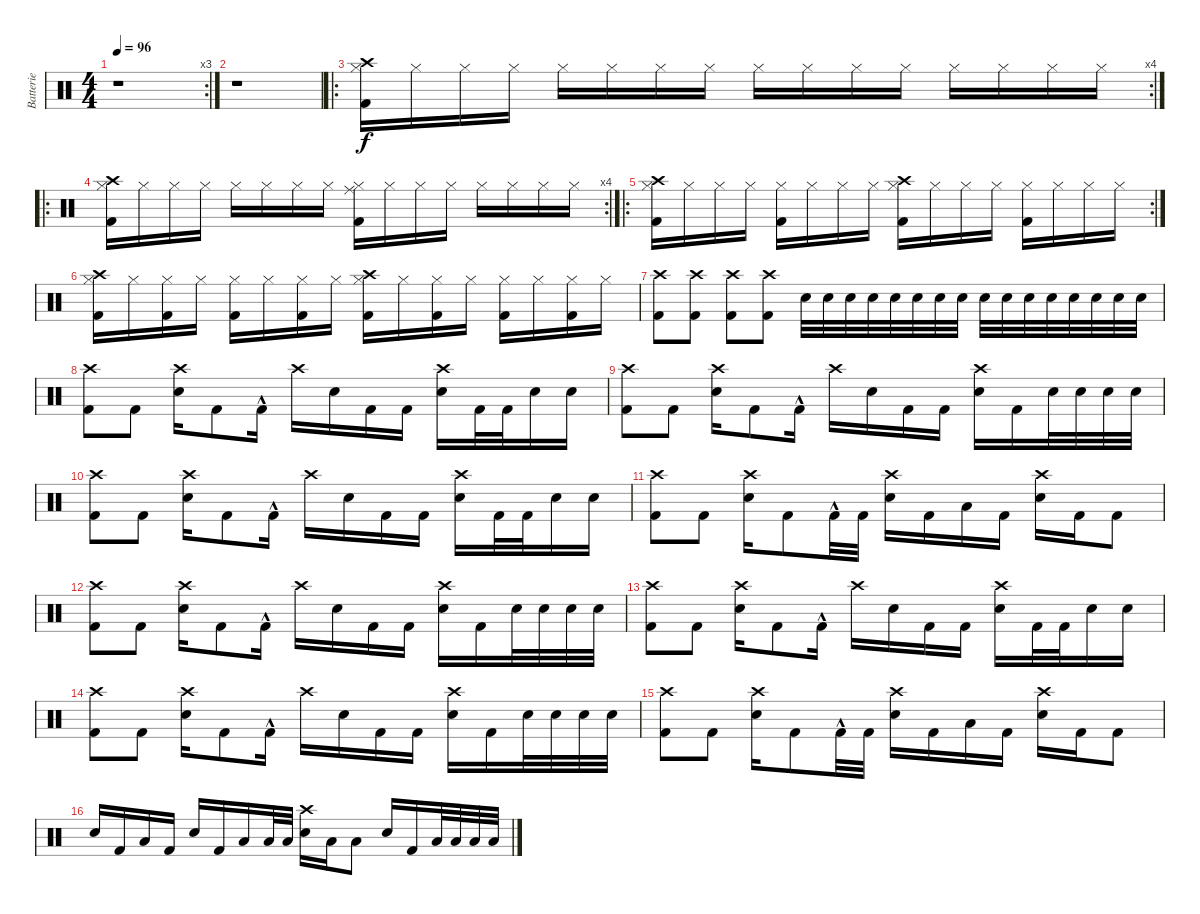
\track ("Batterie" "Batterie") {instrument percussion}
\staff {score}
\articulation defaults
\rc 3
\ts (4 4)
\tempo 96
\clef neutral
\ks c
r.1{dy f} |
r.1 |
\ro
\rc 4
("Hi-Hat (closed)" "Crash high (hit)" "Kick (hit) 2").16 "Hi-Hat (closed)".16 "Hi-Hat (closed)".16 "Hi-Hat (closed)".16 "Hi-Hat (closed)".16 "Hi-Hat (closed)".16 "Hi-Hat (closed)".16 "Hi-Hat (closed)".16 "Hi-Hat (closed)".16 "Hi-Hat (closed)".16 "Hi-Hat (closed)".16 "Hi-Hat (closed)".16 "Hi-Hat (closed)".16 "Hi-Hat (closed)".16 "Hi-Hat (closed)".16 "Hi-Hat (closed)".16 |
\ro
\rc 4
("Hi-Hat (closed)" "Crash high (hit)" "Kick (hit) 2").16 "Hi-Hat (closed)".16 "Hi-Hat (closed)".16 "Hi-Hat (closed)".16 "Hi-Hat (closed)".16 "Hi-Hat (closed)".16 "Hi-Hat (closed)".16 "Hi-Hat (closed)".16 ("Hi-Hat (closed)" "Ride (middle)" "Kick (hit) 2").16 "Hi-Hat (closed)".16 "Hi-Hat (closed)".16 "Hi-Hat (closed)".16 "Hi-Hat (closed)".16 "Hi-Hat (closed)".16 "Hi-Hat (closed)".16 "Hi-Hat (closed)".16 |
\ro
\rc 2
("Hi-Hat (closed)" "Crash high (hit)" "Kick (hit) 2").16 "Hi-Hat (closed)".16 "Hi-Hat (closed)".16 "Hi-Hat (closed)".16 ("Hi-Hat (closed)" "Kick (hit) 2").16 "Hi-Hat (closed)".16 "Hi-Hat (closed)".16 "Hi-Hat (closed)".16 ("Hi-Hat (closed)" "Crash high (hit)" "Kick (hit) 2").16 "Hi-Hat (closed)".16 "Hi-Hat (closed)".16 "Hi-Hat (closed)".16 ("Hi-Hat (closed)" "Kick (hit) 2").16 "Hi-Hat (closed)".16 "Hi-Hat (closed)".16 "Hi-Hat (closed)".16 |
("Hi-Hat (closed)" "Crash high (hit)" "Kick (hit) 2").16 "Hi-Hat (closed)".16 ("Hi-Hat (closed)" "Kick (hit) 2").16 "Hi-Hat (closed)".16 ("Hi-Hat (closed)" "Kick (hit) 2").16 "Hi-Hat (closed)".16 ("Hi-Hat (closed)" "Kick (hit) 2").16 "Hi-Hat (closed)".16 ("Hi-Hat (closed)" "Crash high (hit)" "Kick (hit) 2").16 "Hi-Hat (closed)".16 ("Hi-Hat (closed)" "Kick (hit) 2").16 "Hi-Hat (closed)".16 ("Hi-Hat (closed)" "Kick (hit) 2").16 "Hi-Hat (closed)".16 ("Hi-Hat (closed)" "Kick (hit) 2").16 "Hi-Hat (closed)".16 |
("Crash high (hit)" "Kick (hit) 2").8 ("Crash high (hit)" "Kick (hit) 2").8 ("Crash high (hit)" "Kick (hit) 2").8 ("Crash high (hit)" "Kick (hit) 2").8 "Electric Snare (hit)".32 "Electric Snare (hit)".32 "Electric Snare (hit)".32 "Electric Snare (hit)".32 "Electric Snare (hit)".32 "Electric Snare (hit)".32 "Electric Snare (hit)".32 "Electric Snare (hit)".32 "Electric Snare (hit)".32 "Electric Snare (hit)".32 "Electric Snare (hit)".32 "Electric Snare (hit)".32 "Electric Snare (hit)".32 "Electric Snare (hit)".32 "Electric Snare (hit)".32 "Electric Snare (hit)".32 |
("Crash high (hit)" "Kick (hit) 2").8 "Kick (hit) 2".8 ("Crash high (hit)" "Snare (hit) 2").16 "Kick (hit) 2".8 "Kick (hit) 2"{hac}.16 "Crash high (hit)".16 "Snare (hit) 2".16 "Kick (hit) 2".16 "Kick (hit) 2".16 ("Crash high (hit)" "Snare (hit) 2").16 "Kick (hit) 2".32 "Kick (hit) 2".32 "Snare (hit) 2".16 "Snare (hit) 2".16 |
("Crash high (hit)" "Kick (hit) 2").8 "Kick (hit) 2".8 ("Crash high (hit)" "Snare (hit) 2").16 "Kick (hit) 2".8 "Kick (hit) 2"{hac}.16 "Crash high (hit)".16 "Snare (hit) 2".16 "Kick (hit) 2".16 "Kick (hit) 2".16 ("Crash high (hit)" "Snare (hit) 2").16 "Kick (hit) 2".16 "Snare (hit) 2".32 "Snare (hit) 2".32 "Snare (hit) 2".32 "Snare (hit) 2".32 |
("Crash high (hit)" "Kick (hit) 2").8 "Kick (hit) 2".8 ("Crash high (hit)" "Snare (hit) 2").16 "Kick (hit) 2".8 "Kick (hit) 2"{hac}.16 "Crash high (hit)".16 "Snare (hit) 2".16 "Kick (hit) 2".16 "Kick (hit) 2".16 ("Crash high (hit)" "Snare (hit) 2").16 "Kick (hit) 2".32 "Kick (hit) 2".32 "Snare (hit) 2".16 "Snare (hit) 2".16 |
("Crash high (hit)" "Kick (hit) 2").8 "Kick (hit) 2".8 ("Crash high (hit)" "Snare (hit) 2").16 "Kick (hit) 2".8 "Kick (hit) 2"{hac}.32 "Kick (hit) 2".32 ("Crash high (hit)" "Snare (hit) 2").16 "Kick (hit) 2".16 "Low Floor Tom (hit)".16 "Kick (hit) 2".16 ("Crash high (hit)" "Snare (hit) 2").16 "Kick (hit) 2".16 "Kick (hit) 2".8 |
("Crash high (hit)" "Kick (hit) 2").8 "Kick (hit) 2".8 ("Crash high (hit)" "Snare (hit) 2").16 "Kick (hit) 2".8 "Kick (hit) 2"{hac}.16 "Crash high (hit)".16 "Snare (hit) 2".16 "Kick (hit) 2".16 "Kick (hit) 2".16 ("Crash high (hit)" "Snare (hit) 2").16 "Kick (hit) 2".16 "Snare (hit) 2".32 "Snare (hit) 2".32 "Snare (hit) 2".32 "Snare (hit) 2".32 |
("Crash high (hit)" "Kick (hit) 2").8 "Kick (hit) 2".8 ("Crash high (hit)" "Snare (hit) 2").16 "Kick (hit) 2".8 "Kick (hit) 2"{hac}.16 "Crash high (hit)".16 "Snare (hit) 2".16 "Kick (hit) 2".16 "Kick (hit) 2".16 ("Crash high (hit)" "Snare (hit) 2").16 "Kick (hit) 2".32 "Kick (hit) 2".32 "Snare (hit) 2".16 "Snare (hit) 2".16 |
("Crash high (hit)" "Kick (hit) 2").8 "Kick (hit) 2".8 ("Crash high (hit)" "Snare (hit) 2").16 "Kick (hit) 2".8 "Kick (hit) 2"{hac}.16 "Crash high (hit)".16 "Snare (hit) 2".16 "Kick (hit) 2".16 "Kick (hit) 2".16 ("Crash high (hit)" "Snare (hit) 2").16 "Kick (hit) 2".16 "Snare (hit) 2".32 "Snare (hit) 2".32 "Snare (hit) 2".32 "Snare (hit) 2".32 |
("Crash high (hit)" "Kick (hit) 2").8 "Kick (hit) 2".8 ("Crash high (hit)" "Snare (hit) 2").16 "Kick (hit) 2".8 "Kick (hit) 2"{hac}.32 "Kick (hit) 2".32 ("Crash high (hit)" "Snare (hit) 2").16 "Kick (hit) 2".16 "Low Floor Tom (hit)".16 "Kick (hit) 2".16 ("Crash high (hit)" "Snare (hit) 2").16 "Kick (hit) 2".16 "Kick (hit) 2".8 |
"Snare (hit) 2".16 "Kick (hit) 2".16 "Low Floor Tom (hit)".16 "Kick (hit) 2".16 "Snare (hit) 2".16 "Kick (hit) 2".16 "Low Floor Tom (hit)".16 "Low Floor Tom (hit)".32 "Low Floor Tom (hit)".32 ("Crash high (hit)" "Snare (hit) 2").16 "Low Floor Tom (hit)".16 "Low Floor Tom (hit)".8 "Snare (hit) 2".16 "Kick (hit) 2".16 "Low Floor Tom (hit)".32 "Low Floor Tom (hit)".32 "Low Floor Tom (hit)".32 "Low Floor Tom (hit)".32
